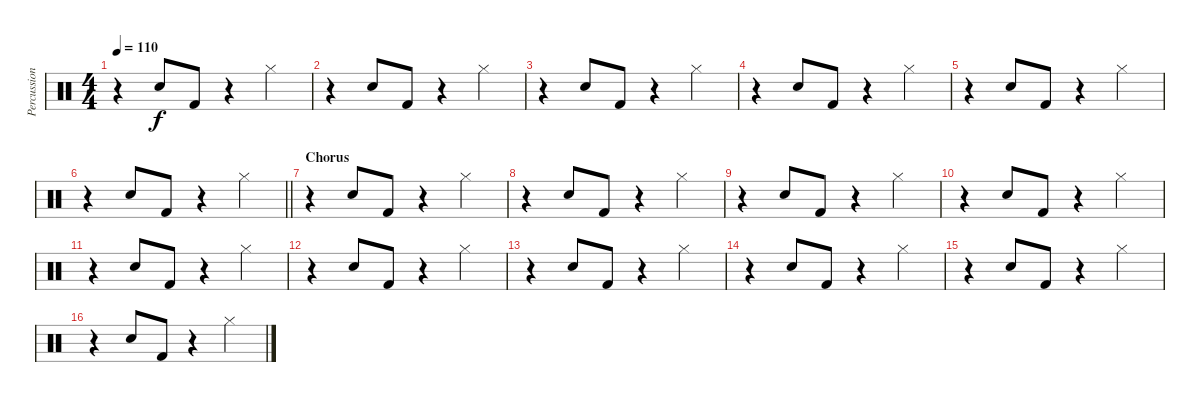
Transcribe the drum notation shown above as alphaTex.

\track ("Percussion" "Percussion") {instrument percussion}
\staff {score}
\articulation defaults
\ts (4 4)
\tempo 110
\clef neutral
\ks c
r.4{dy f} "Snare (hit) 2".8 "Kick (hit) 2".8 r.4 "Hi-Hat (closed)".4 |
r.4 "Snare (hit) 2".8 "Kick (hit) 2".8 r.4 "Hi-Hat (closed)".4 |
r.4 "Snare (hit) 2".8 "Kick (hit) 2".8 r.4 "Hi-Hat (closed)".4 |
r.4 "Snare (hit) 2".8 "Kick (hit) 2".8 r.4 "Hi-Hat (closed)".4 |
r.4 "Snare (hit) 2".8 "Kick (hit) 2".8 r.4 "Hi-Hat (closed)".4 |
\barLineRight lightlight
r.4 "Snare (hit) 2".8 "Kick (hit) 2".8 r.4 "Hi-Hat (closed)".4 |
\section ("" "Chorus")
r.4 "Snare (hit) 2".8 "Kick (hit) 2".8 r.4 "Hi-Hat (closed)".4 |
r.4 "Snare (hit) 2".8 "Kick (hit) 2".8 r.4 "Hi-Hat (closed)".4 |
r.4 "Snare (hit) 2".8 "Kick (hit) 2".8 r.4 "Hi-Hat (closed)".4 |
r.4 "Snare (hit) 2".8 "Kick (hit) 2".8 r.4 "Hi-Hat (closed)".4 |
r.4 "Snare (hit) 2".8 "Kick (hit) 2".8 r.4 "Hi-Hat (closed)".4 |
r.4 "Snare (hit) 2".8 "Kick (hit) 2".8 r.4 "Hi-Hat (closed)".4 |
r.4 "Snare (hit) 2".8 "Kick (hit) 2".8 r.4 "Hi-Hat (closed)".4 |
r.4 "Snare (hit) 2".8 "Kick (hit) 2".8 r.4 "Hi-Hat (closed)".4 |
r.4 "Snare (hit) 2".8 "Kick (hit) 2".8 r.4 "Hi-Hat (closed)".4 |
r.4 "Snare (hit) 2".8 "Kick (hit) 2".8 r.4 "Hi-Hat (closed)".4
